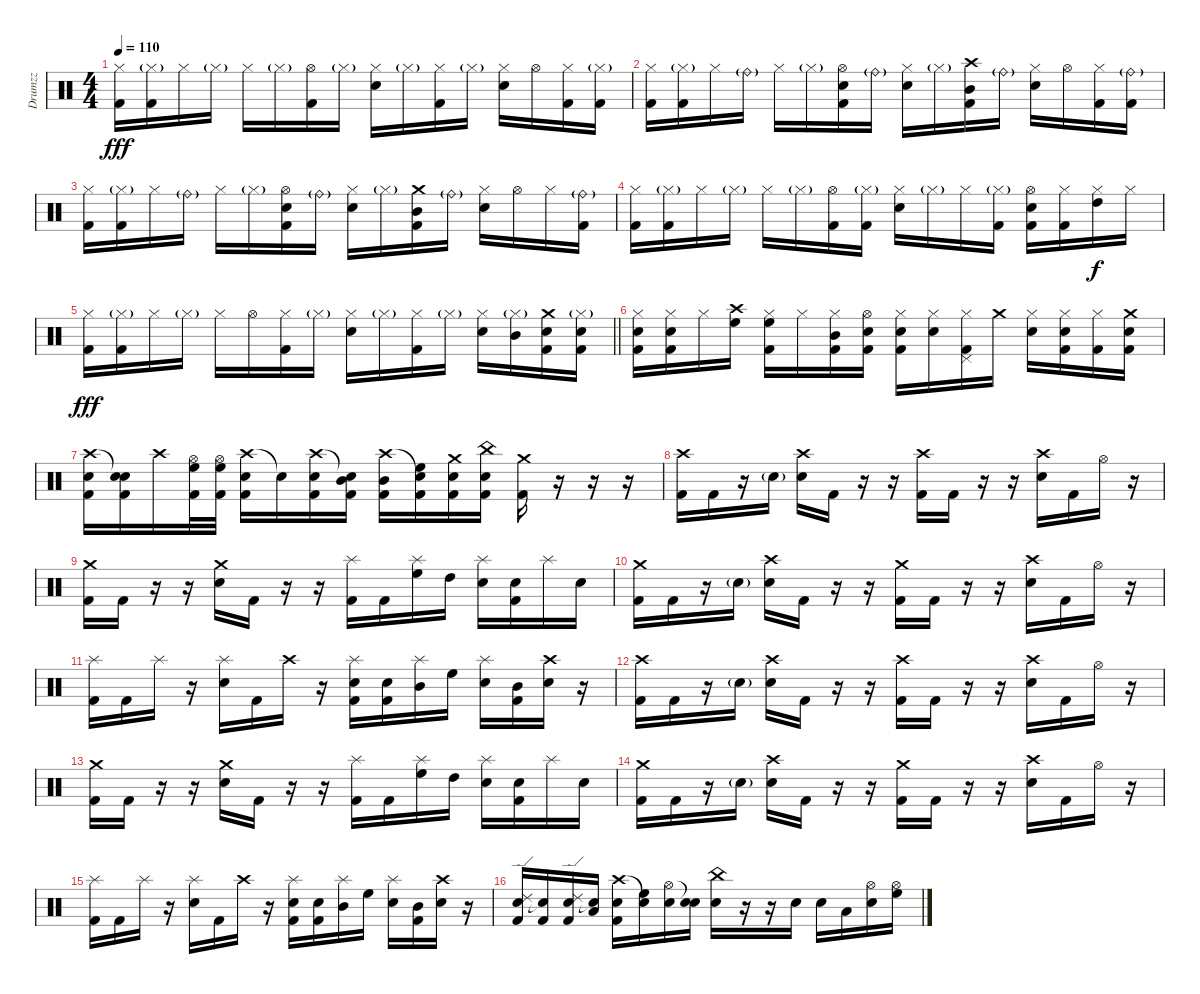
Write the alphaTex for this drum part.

\track ("Drumzz" "Drumzz") {instrument percussion}
\staff {score}
\articulation defaults
\ts (4 4)
\tempo 110
\clef neutral
\ks c
("Hi-Hat (closed)" "Kick (hit) 2").16{dy fff} ("Hi-Hat (closed)"{g} "Kick (hit) 2").16 "Hi-Hat (closed)".16 "Hi-Hat (closed)"{g}.16 "Hi-Hat (closed)".16 "Hi-Hat (closed)"{g}.16 ("Hi-Hat (open)" "Kick (hit) 2").16 "Hi-Hat (closed)"{g}.16 ("Hi-Hat (closed)" "Snare (hit) 2").16 "Hi-Hat (closed)"{g}.16 ("Hi-Hat (closed)" "Kick (hit) 2").16 "Hi-Hat (closed)"{g}.16 ("Hi-Hat (closed)" "Snare (hit) 2").16 "Hi-Hat (open)".16 ("Hi-Hat (closed)" "Kick (hit) 2").16 ("Hi-Hat (closed)"{g} "Kick (hit) 2").16 |
("Hi-Hat (closed)" "Kick (hit) 2").16 ("Hi-Hat (closed)"{g} "Kick (hit) 2").16 "Hi-Hat (closed)".16 "Ride (bell)"{g}.16 "Hi-Hat (closed)".16 "Hi-Hat (closed)"{g}.16 ("Hi-Hat (open)" "Snare (hit) 2" "Kick (hit) 2").16 "Ride (bell)"{g}.16 ("Hi-Hat (closed)" "Snare (hit) 2").16 "Hi-Hat (closed)"{g}.16 ("Crash high (hit)" "Mid Tom (hit)" "Kick (hit) 2").16 "Ride (bell)"{g}.16 ("Hi-Hat (closed)" "Snare (hit) 2").16 "Hi-Hat (open)".16 ("Hi-Hat (closed)" "Kick (hit) 2").16 ("Ride (bell)"{g} "Kick (hit) 2").16 |
("Hi-Hat (closed)" "Kick (hit) 2").16 ("Hi-Hat (closed)"{g} "Kick (hit) 2").16 "Hi-Hat (closed)".16 "Ride (bell)"{g}.16 "Hi-Hat (closed)".16 "Hi-Hat (closed)"{g}.16 ("Hi-Hat (open)" "Snare (hit) 2" "Kick (hit) 2").16 "Ride (bell)"{g}.16 ("Hi-Hat (closed)" "Snare (hit) 2").16 "Hi-Hat (closed)"{g}.16 ("Crash medium (hit)" "Mid Tom (hit)" "Kick (hit) 2").16 "Ride (bell)"{g}.16 ("Hi-Hat (closed)" "Snare (hit) 2").16 "Hi-Hat (open)".16 "Hi-Hat (closed)".16 ("Ride (bell)"{g} "Kick (hit) 2").16 |
("Hi-Hat (closed)" "Kick (hit) 2").16 ("Hi-Hat (closed)"{g} "Kick (hit) 2").16 "Hi-Hat (closed)".16 "Hi-Hat (closed)"{g}.16 "Hi-Hat (closed)".16 "Hi-Hat (closed)"{g}.16 ("Hi-Hat (open)" "Kick (hit) 2").16 ("Hi-Hat (closed)"{g} "Kick (hit) 2").16 ("Hi-Hat (closed)" "Snare (hit) 2").16 "Hi-Hat (closed)"{g}.16 "Hi-Hat (closed)".16 ("Hi-Hat (closed)"{g} "Kick (hit) 2").16 ("Hi-Hat (open)" "Snare (hit) 2" "Kick (hit) 2").16 ("Hi-Hat (closed)" "Kick (hit) 2").16 ("Hi-Hat (closed)" "High Tom (hit)").16{dy f} "Hi-Hat (closed)".16 |
\barLineRight lightlight
("Hi-Hat (closed)" "Kick (hit) 2").16{dy fff} ("Hi-Hat (closed)"{g} "Kick (hit) 2").16 "Hi-Hat (closed)".16 "Hi-Hat (closed)"{g}.16 "Hi-Hat (closed)".16 "Hi-Hat (open)".16 ("Hi-Hat (closed)" "Kick (hit) 2").16 "Hi-Hat (closed)"{g}.16 ("Hi-Hat (closed)" "Snare (hit) 2").16 "Hi-Hat (closed)"{g}.16 ("Hi-Hat (closed)" "Kick (hit) 2").16 "Hi-Hat (closed)"{g}.16 ("Hi-Hat (closed)" "Snare (hit) 2").16 ("Hi-Hat (closed)"{g} "Mid Tom (hit)").16 ("Crash medium (hit)" "Snare (hit) 2" "Kick (hit) 2").16 ("Hi-Hat (closed)"{g} "Snare (hit) 2" "Kick (hit) 2").16 |
("Hi-Hat (closed)" "Snare (hit) 2" "Kick (hit) 2").16 ("Hi-Hat (closed)" "Snare (hit) 2" "Kick (hit) 2").16 "Hi-Hat (closed)".16 ("Crash high (hit)" "High Floor Tom (hit)").16 ("Hi-Hat (closed)" "High Floor Tom (hit)" "Kick (hit) 2").16 "Hi-Hat (closed)".16 ("Hi-Hat (closed)" "Mid Tom (hit)" "Kick (hit) 2").16 ("Hi-Hat (open)" "Snare (hit) 2" "Kick (hit) 2").16 ("Hi-Hat (closed)" "Snare (hit) 2" "Kick (hit) 2").16 ("Hi-Hat (closed)" "Snare (hit) 2").16 ("Hi-Hat (closed)" "Pedal Hi-Hat (hit)" "Kick (hit) 2").16 "Crash medium (hit)".16 ("Hi-Hat (closed)" "Snare (hit) 2").16 ("Hi-Hat (closed)" "Snare (hit) 2" "Kick (hit) 2").16 ("Hi-Hat (closed)" "Kick (hit) 2").16 ("Crash medium (hit)" "Snare (hit) 2" "Kick (hit) 2").16 |
("Crash high (hit)" "Snare (hit) 2" "Kick (hit) 2").16 ("Snare (hit)"{t} "Snare (hit) 2" "Kick (hit) 2").16 "Crash high (hit)".16 ("Hi-Hat (open)" "High Floor Tom (hit)" "Kick (hit) 2").32 ("Hi-Hat (open)" "High Floor Tom (hit)" "Kick (hit) 2").32 ("Crash high (hit)" "Snare (hit) 2" "Kick (hit) 2").16 "Snare (hit)"{t}.16 ("Crash high (hit)" "Snare (hit) 2" "Kick (hit) 2").16 ("Snare (hit)"{t} "Mid Tom (hit)" "Kick (hit) 2").16 ("Crash high (hit)" "Mid Tom (hit)" "Kick (hit) 2").16 ("Snare (hit)"{t} "High Floor Tom (hit)" "Kick (hit) 2").16 ("Crash medium (hit)" "Snare (hit) 2" "Kick (hit) 2").16 ("China (hit)" "Snare (hit) 2" "Kick (hit) 2").16 ("Crash medium (hit)" "Kick (hit) 2").16 r.16 r.16 r.16 |
("Crash high (hit)" "Kick (hit) 2").16{volume 14} "Kick (hit) 2".16 r.16 "Snare (hit) 2"{g}.16 ("Crash high (hit)" "Snare (hit) 2").16 "Kick (hit) 2".16 r.16 r.16 ("Crash high (hit)" "Kick (hit) 2").16 "Kick (hit) 2".16 r.16 r.16 ("Crash high (hit)" "Snare (hit) 2").16 "Kick (hit) 2".16 "Hi-Hat (open)".16 r.16 |
("Crash medium (hit)" "Kick (hit) 2").16 "Kick (hit) 2".16 r.16 r.16 ("Crash medium (hit)" "Snare (hit) 2").16 "Kick (hit) 2".16 r.16 r.16 ("Splash (hit)" "Kick (hit) 2").16 "Kick (hit) 2".16 ("Splash (hit)" "High Floor Tom (hit)").16 "High Tom (hit)".16 ("Splash (hit)" "Snare (hit) 2").16 ("Snare (hit) 2" "Kick (hit) 2").16 "Splash (hit)".16 "Snare (hit) 2".16 |
("Crash medium (hit)" "Kick (hit) 2").16 "Kick (hit) 2".16 r.16 "Snare (hit) 2"{g}.16 ("Crash high (hit)" "Snare (hit) 2").16 "Kick (hit) 2".16 r.16 r.16 ("Crash medium (hit)" "Kick (hit) 2").16 "Kick (hit) 2".16 r.16 r.16 ("Crash high (hit)" "Snare (hit) 2").16 "Kick (hit) 2".16 "Hi-Hat (open)".16 r.16 |
("Splash (hit)" "Kick (hit) 2").16 "Kick (hit) 2".16 "Splash (hit)".16 r.16 ("Splash (hit)" "Snare (hit) 2").16 "Kick (hit) 2".16 "Crash high (hit)".16 r.16 ("Splash (hit)" "Snare (hit) 2" "Kick (hit) 2").16 ("Snare (hit) 2" "Kick (hit) 2").16 ("Splash (hit)" "Mid Tom (hit)").16 "High Floor Tom (hit)".16 ("Splash (hit)" "Snare (hit) 2").16 ("Mid Tom (hit)" "Kick (hit) 2").16 ("Crash high (hit)" "Snare (hit) 2").16 r.16 |
("Crash high (hit)" "Kick (hit) 2").16 "Kick (hit) 2".16 r.16 "Snare (hit) 2"{g}.16 ("Crash high (hit)" "Snare (hit) 2").16 "Kick (hit) 2".16 r.16 r.16 ("Crash high (hit)" "Kick (hit) 2").16 "Kick (hit) 2".16 r.16 r.16 ("Crash high (hit)" "Snare (hit) 2").16 "Kick (hit) 2".16 "Hi-Hat (open)".16 r.16 |
("Crash medium (hit)" "Kick (hit) 2").16 "Kick (hit) 2".16 r.16 r.16 ("Crash medium (hit)" "Snare (hit) 2").16 "Kick (hit) 2".16 r.16 r.16 ("Splash (hit)" "Kick (hit) 2").16 "Kick (hit) 2".16 ("Splash (hit)" "High Floor Tom (hit)").16 "High Tom (hit)".16 ("Splash (hit)" "Snare (hit) 2").16 ("Snare (hit) 2" "Kick (hit) 2").16 "Splash (hit)".16 "Snare (hit) 2".16 |
("Crash medium (hit)" "Kick (hit) 2").16 "Kick (hit) 2".16 r.16 "Snare (hit) 2"{g}.16 ("Crash high (hit)" "Snare (hit) 2").16 "Kick (hit) 2".16 r.16 r.16 ("Crash medium (hit)" "Kick (hit) 2").16 "Kick (hit) 2".16 r.16 r.16 ("Crash high (hit)" "Snare (hit) 2").16 "Kick (hit) 2".16 "Hi-Hat (open)".16 r.16 |
("Splash (hit)" "Kick (hit) 2").16 "Kick (hit) 2".16 "Splash (hit)".16 r.16 ("Splash (hit)" "Snare (hit) 2").16 "Kick (hit) 2".16 "Crash high (hit)".16 r.16 ("Splash (hit)" "Snare (hit) 2" "Kick (hit) 2").16 ("Snare (hit) 2" "Kick (hit) 2").16 ("Splash (hit)" "Mid Tom (hit)").16 "High Floor Tom (hit)".16 ("Splash (hit)" "Snare (hit) 2").16 ("Mid Tom (hit)" "Kick (hit) 2").16 ("Crash high (hit)" "Snare (hit) 2").16 r.16 |
("Ride (edge) 2" "Snare (hit) 2" "Kick (hit) 2").16 ("Snare (hit)"{t} "Kick (hit) 2").16 ("Ride (edge) 2" "Snare (hit) 2" "Kick (hit) 2").16 ("Snare (hit)"{t} "Low Tom (hit)").16 ("Crash high (hit)" "Snare (hit) 2" "Kick (hit) 2").16 ("Snare (hit)"{t} "High Floor Tom (hit)").16 ("Hi-Hat (open)" "Snare (hit) 2").16 ("Snare (hit)"{t} "Snare (hit) 2").16 ("China (hit)" "Snare (hit) 2").16 r.16 r.16 "Snare (hit) 2".16 "Snare (hit) 2".16 "Low Tom (hit)".16 ("Hi-Hat (open)" "Snare (hit) 2").16 ("Hi-Hat (open)" "High Floor Tom (hit)").16
